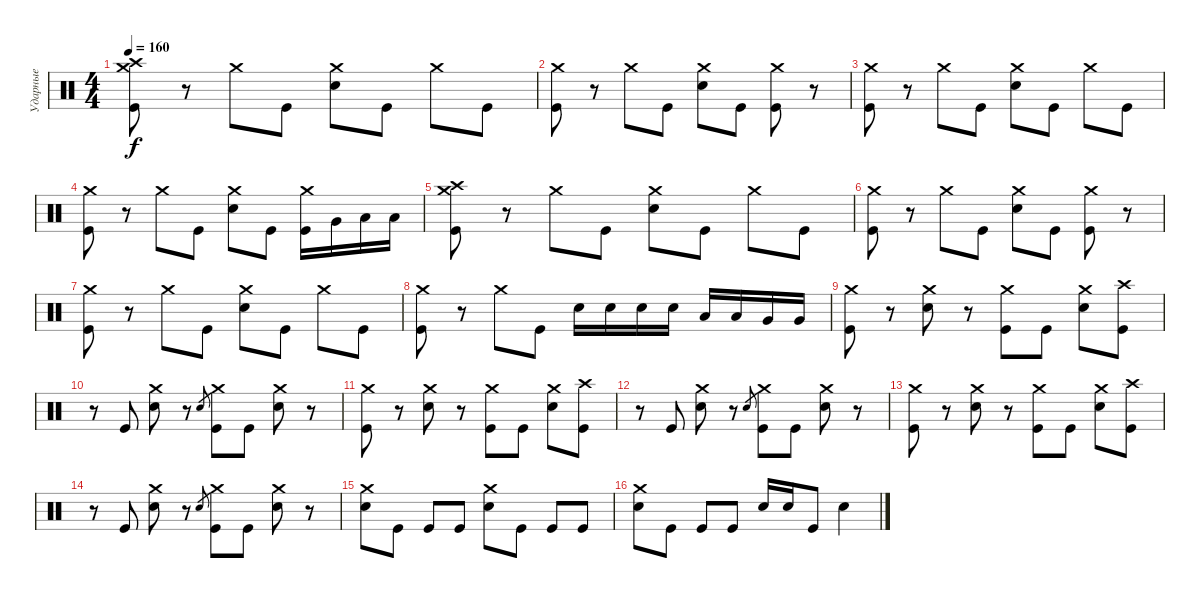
\track ("Ударные" "Ударные") {instrument percussion}
\staff {score}
\articulation defaults
\ts (4 4)
\tempo 160
\clef neutral
\ks c
("Kick (hit)" "Crash medium (hit)" "Crash high (hit)").8{dy f} r.8 "Crash medium (hit)".8 "Kick (hit)".8 ("Electric Snare (hit)" "Crash medium (hit)").8 "Kick (hit)".8 "Crash medium (hit)".8 "Kick (hit)".8 |
("Kick (hit)" "Crash medium (hit)").8 r.8 "Crash medium (hit)".8 "Kick (hit)".8 ("Electric Snare (hit)" "Crash medium (hit)").8 "Kick (hit)".8 ("Kick (hit)" "Crash medium (hit)").8 r.8 |
("Kick (hit)" "Crash medium (hit)").8 r.8 "Crash medium (hit)".8 "Kick (hit)".8 ("Electric Snare (hit)" "Crash medium (hit)").8 "Kick (hit)".8 "Crash medium (hit)".8 "Kick (hit)".8 |
("Kick (hit)" "Crash medium (hit)").8 r.8 "Crash medium (hit)".8 "Kick (hit)".8 ("Electric Snare (hit)" "Crash medium (hit)").8 "Kick (hit)".8 ("Kick (hit)" "Crash medium (hit)").16 "Very Low Tom (hit)".16 "Low Tom (hit)".16 "Low Tom (hit)".16 |
("Kick (hit)" "Crash medium (hit)" "Crash high (hit)").8 r.8 "Crash medium (hit)".8 "Kick (hit)".8 ("Electric Snare (hit)" "Crash medium (hit)").8 "Kick (hit)".8 "Crash medium (hit)".8 "Kick (hit)".8 |
("Kick (hit)" "Crash medium (hit)").8 r.8 "Crash medium (hit)".8 "Kick (hit)".8 ("Electric Snare (hit)" "Crash medium (hit)").8 "Kick (hit)".8 ("Kick (hit)" "Crash medium (hit)").8 r.8 |
("Kick (hit)" "Crash medium (hit)").8 r.8 "Crash medium (hit)".8 "Kick (hit)".8 ("Electric Snare (hit)" "Crash medium (hit)").8 "Kick (hit)".8 "Crash medium (hit)".8 "Kick (hit)".8 |
("Kick (hit)" "Crash medium (hit)").8 r.8 "Crash medium (hit)".8 "Kick (hit)".8 "Electric Snare (hit)".16 "Electric Snare (hit)".16 "Electric Snare (hit)".16 "Electric Snare (hit)".16 "Low Tom (hit)".16 "Low Tom (hit)".16 "Very Low Tom (hit)".16 "Very Low Tom (hit)".16 |
("Kick (hit)" "Crash medium (hit)").8 r.8 ("Electric Snare (hit)" "Crash medium (hit)").8 r.8 ("Kick (hit)" "Crash medium (hit)").8 "Kick (hit)".8 ("Electric Snare (hit)" "Crash medium (hit)").8 ("Kick (hit)" "Crash high (hit)").8 |
r.8 "Kick (hit)".8 ("Electric Snare (hit)" "Crash medium (hit)").8 r.8 "Electric Snare (hit)".8{gr} ("Kick (hit)" "Crash medium (hit)").8 "Kick (hit)".8 ("Electric Snare (hit)" "Crash medium (hit)").8 r.8 |
("Kick (hit)" "Crash medium (hit)").8 r.8 ("Electric Snare (hit)" "Crash medium (hit)").8 r.8 ("Kick (hit)" "Crash medium (hit)").8 "Kick (hit)".8 ("Electric Snare (hit)" "Crash medium (hit)").8 ("Kick (hit)" "Crash high (hit)").8 |
r.8 "Kick (hit)".8 ("Electric Snare (hit)" "Crash medium (hit)").8 r.8 "Electric Snare (hit)".8{gr} ("Kick (hit)" "Crash medium (hit)").8 "Kick (hit)".8 ("Electric Snare (hit)" "Crash medium (hit)").8 r.8 |
("Kick (hit)" "Crash medium (hit)").8 r.8 ("Electric Snare (hit)" "Crash medium (hit)").8 r.8 ("Kick (hit)" "Crash medium (hit)").8 "Kick (hit)".8 ("Electric Snare (hit)" "Crash medium (hit)").8 ("Kick (hit)" "Crash high (hit)").8 |
r.8 "Kick (hit)".8 ("Electric Snare (hit)" "Crash medium (hit)").8 r.8 "Electric Snare (hit)".8{gr} ("Kick (hit)" "Crash medium (hit)").8 "Kick (hit)".8 ("Electric Snare (hit)" "Crash medium (hit)").8 r.8 |
("Electric Snare (hit)" "Crash medium (hit)").8 "Kick (hit)".8 "Kick (hit)".8 "Kick (hit)".8 ("Electric Snare (hit)" "Crash medium (hit)").8 "Kick (hit)".8 "Kick (hit)".8 "Kick (hit)".8 |
("Electric Snare (hit)" "Crash medium (hit)").8 "Kick (hit)".8 "Kick (hit)".8 "Kick (hit)".8 "Electric Snare (hit)".16 "Electric Snare (hit)".16 "Kick (hit)".8 "Electric Snare (hit)".4
